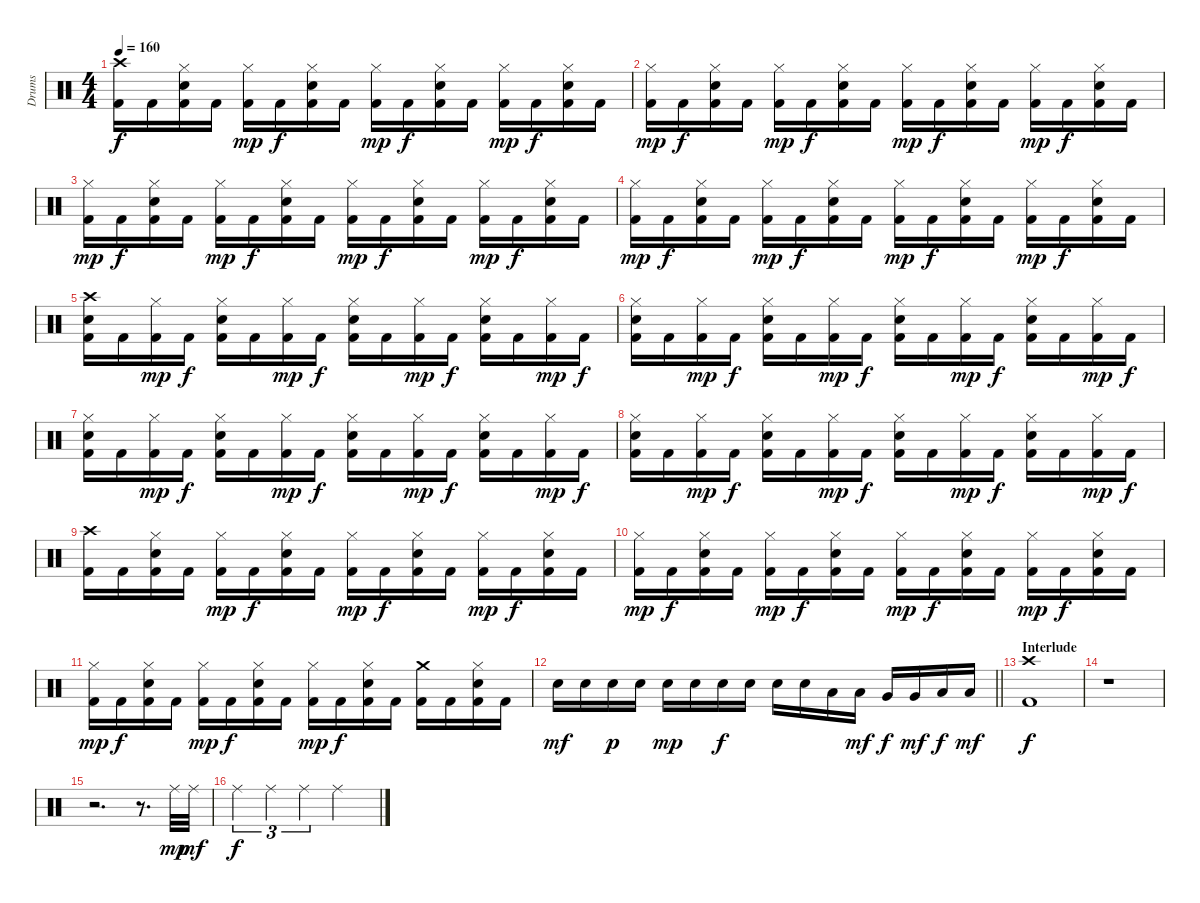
\track ("Drums" "Drums") {instrument percussion}
\staff {score}
\articulation defaults
\ts (4 4)
\tempo 160
\clef neutral
\ks c
("Kick (hit) 2" "Crash high (hit)").16{dy f} "Kick (hit) 2".16 ("Kick (hit) 2" "Hi-Hat (closed)" "Electric Snare (hit)").16 "Kick (hit) 2".16 ("Kick (hit) 2" "Hi-Hat (closed)").16{dy mp} "Kick (hit) 2".16{dy f} ("Kick (hit) 2" "Hi-Hat (closed)" "Electric Snare (hit)").16 "Kick (hit) 2".16 ("Kick (hit) 2" "Hi-Hat (closed)").16{dy mp} "Kick (hit) 2".16{dy f} ("Kick (hit) 2" "Hi-Hat (closed)" "Electric Snare (hit)").16 "Kick (hit) 2".16 ("Kick (hit) 2" "Hi-Hat (closed)").16{dy mp} "Kick (hit) 2".16{dy f} ("Kick (hit) 2" "Hi-Hat (closed)" "Electric Snare (hit)").16 "Kick (hit) 2".16 |
("Kick (hit) 2" "Hi-Hat (closed)").16{dy mp} "Kick (hit) 2".16{dy f} ("Kick (hit) 2" "Hi-Hat (closed)" "Electric Snare (hit)").16 "Kick (hit) 2".16 ("Kick (hit) 2" "Hi-Hat (closed)").16{dy mp} "Kick (hit) 2".16{dy f} ("Kick (hit) 2" "Hi-Hat (closed)" "Electric Snare (hit)").16 "Kick (hit) 2".16 ("Kick (hit) 2" "Hi-Hat (closed)").16{dy mp} "Kick (hit) 2".16{dy f} ("Kick (hit) 2" "Hi-Hat (closed)" "Electric Snare (hit)").16 "Kick (hit) 2".16 ("Kick (hit) 2" "Hi-Hat (closed)").16{dy mp} "Kick (hit) 2".16{dy f} ("Kick (hit) 2" "Hi-Hat (closed)" "Electric Snare (hit)").16 "Kick (hit) 2".16 |
("Kick (hit) 2" "Hi-Hat (closed)").16{dy mp} "Kick (hit) 2".16{dy f} ("Kick (hit) 2" "Hi-Hat (closed)" "Electric Snare (hit)").16 "Kick (hit) 2".16 ("Kick (hit) 2" "Hi-Hat (closed)").16{dy mp} "Kick (hit) 2".16{dy f} ("Kick (hit) 2" "Hi-Hat (closed)" "Electric Snare (hit)").16 "Kick (hit) 2".16 ("Kick (hit) 2" "Hi-Hat (closed)").16{dy mp} "Kick (hit) 2".16{dy f} ("Kick (hit) 2" "Hi-Hat (closed)" "Electric Snare (hit)").16 "Kick (hit) 2".16 ("Kick (hit) 2" "Hi-Hat (closed)").16{dy mp} "Kick (hit) 2".16{dy f} ("Kick (hit) 2" "Hi-Hat (closed)" "Electric Snare (hit)").16 "Kick (hit) 2".16 |
("Kick (hit) 2" "Hi-Hat (closed)").16{dy mp} "Kick (hit) 2".16{dy f} ("Kick (hit) 2" "Hi-Hat (closed)" "Electric Snare (hit)").16 "Kick (hit) 2".16 ("Kick (hit) 2" "Hi-Hat (closed)").16{dy mp} "Kick (hit) 2".16{dy f} ("Kick (hit) 2" "Hi-Hat (closed)" "Electric Snare (hit)").16 "Kick (hit) 2".16 ("Kick (hit) 2" "Hi-Hat (closed)").16{dy mp} "Kick (hit) 2".16{dy f} ("Kick (hit) 2" "Hi-Hat (closed)" "Electric Snare (hit)").16 "Kick (hit) 2".16 ("Kick (hit) 2" "Hi-Hat (closed)").16{dy mp} "Kick (hit) 2".16{dy f} ("Kick (hit) 2" "Hi-Hat (closed)" "Electric Snare (hit)").16 "Kick (hit) 2".16 |
("Kick (hit) 2" "Crash high (hit)" "Electric Snare (hit)").16 "Kick (hit) 2".16 ("Kick (hit) 2" "Hi-Hat (closed)").16{dy mp} "Kick (hit) 2".16{dy f} ("Kick (hit) 2" "Hi-Hat (closed)" "Electric Snare (hit)").16 "Kick (hit) 2".16 ("Kick (hit) 2" "Hi-Hat (closed)").16{dy mp} "Kick (hit) 2".16{dy f} ("Kick (hit) 2" "Hi-Hat (closed)" "Electric Snare (hit)").16 "Kick (hit) 2".16 ("Kick (hit) 2" "Hi-Hat (closed)").16{dy mp} "Kick (hit) 2".16{dy f} ("Kick (hit) 2" "Hi-Hat (closed)" "Electric Snare (hit)").16 "Kick (hit) 2".16 ("Kick (hit) 2" "Hi-Hat (closed)").16{dy mp} "Kick (hit) 2".16{dy f} |
("Kick (hit) 2" "Hi-Hat (closed)" "Electric Snare (hit)").16 "Kick (hit) 2".16 ("Kick (hit) 2" "Hi-Hat (closed)").16{dy mp} "Kick (hit) 2".16{dy f} ("Kick (hit) 2" "Hi-Hat (closed)" "Electric Snare (hit)").16 "Kick (hit) 2".16 ("Kick (hit) 2" "Hi-Hat (closed)").16{dy mp} "Kick (hit) 2".16{dy f} ("Kick (hit) 2" "Hi-Hat (closed)" "Electric Snare (hit)").16 "Kick (hit) 2".16 ("Kick (hit) 2" "Hi-Hat (closed)").16{dy mp} "Kick (hit) 2".16{dy f} ("Kick (hit) 2" "Hi-Hat (closed)" "Electric Snare (hit)").16 "Kick (hit) 2".16 ("Kick (hit) 2" "Hi-Hat (closed)").16{dy mp} "Kick (hit) 2".16{dy f} |
("Kick (hit) 2" "Hi-Hat (closed)" "Electric Snare (hit)").16 "Kick (hit) 2".16 ("Kick (hit) 2" "Hi-Hat (closed)").16{dy mp} "Kick (hit) 2".16{dy f} ("Kick (hit) 2" "Hi-Hat (closed)" "Electric Snare (hit)").16 "Kick (hit) 2".16 ("Kick (hit) 2" "Hi-Hat (closed)").16{dy mp} "Kick (hit) 2".16{dy f} ("Kick (hit) 2" "Hi-Hat (closed)" "Electric Snare (hit)").16 "Kick (hit) 2".16 ("Kick (hit) 2" "Hi-Hat (closed)").16{dy mp} "Kick (hit) 2".16{dy f} ("Kick (hit) 2" "Hi-Hat (closed)" "Electric Snare (hit)").16 "Kick (hit) 2".16 ("Kick (hit) 2" "Hi-Hat (closed)").16{dy mp} "Kick (hit) 2".16{dy f} |
("Kick (hit) 2" "Hi-Hat (closed)" "Electric Snare (hit)").16 "Kick (hit) 2".16 ("Kick (hit) 2" "Hi-Hat (closed)").16{dy mp} "Kick (hit) 2".16{dy f} ("Kick (hit) 2" "Hi-Hat (closed)" "Electric Snare (hit)").16 "Kick (hit) 2".16 ("Kick (hit) 2" "Hi-Hat (closed)").16{dy mp} "Kick (hit) 2".16{dy f} ("Kick (hit) 2" "Hi-Hat (closed)" "Electric Snare (hit)").16 "Kick (hit) 2".16 ("Kick (hit) 2" "Hi-Hat (closed)").16{dy mp} "Kick (hit) 2".16{dy f} ("Kick (hit) 2" "Hi-Hat (closed)" "Electric Snare (hit)").16 "Kick (hit) 2".16 ("Kick (hit) 2" "Hi-Hat (closed)").16{dy mp} "Kick (hit) 2".16{dy f} |
("Kick (hit) 2" "Crash high (hit)").16 "Kick (hit) 2".16 ("Kick (hit) 2" "Hi-Hat (closed)" "Electric Snare (hit)").16 "Kick (hit) 2".16 ("Kick (hit) 2" "Hi-Hat (closed)").16{dy mp} "Kick (hit) 2".16{dy f} ("Kick (hit) 2" "Hi-Hat (closed)" "Electric Snare (hit)").16 "Kick (hit) 2".16 ("Kick (hit) 2" "Hi-Hat (closed)").16{dy mp} "Kick (hit) 2".16{dy f} ("Kick (hit) 2" "Hi-Hat (closed)" "Electric Snare (hit)").16 "Kick (hit) 2".16 ("Kick (hit) 2" "Hi-Hat (closed)").16{dy mp} "Kick (hit) 2".16{dy f} ("Kick (hit) 2" "Hi-Hat (closed)" "Electric Snare (hit)").16 "Kick (hit) 2".16 |
("Kick (hit) 2" "Hi-Hat (closed)").16{dy mp} "Kick (hit) 2".16{dy f} ("Kick (hit) 2" "Hi-Hat (closed)" "Electric Snare (hit)").16 "Kick (hit) 2".16 ("Kick (hit) 2" "Hi-Hat (closed)").16{dy mp} "Kick (hit) 2".16{dy f} ("Kick (hit) 2" "Hi-Hat (closed)" "Electric Snare (hit)").16 "Kick (hit) 2".16 ("Kick (hit) 2" "Hi-Hat (closed)").16{dy mp} "Kick (hit) 2".16{dy f} ("Kick (hit) 2" "Hi-Hat (closed)" "Electric Snare (hit)").16 "Kick (hit) 2".16 ("Kick (hit) 2" "Hi-Hat (closed)").16{dy mp} "Kick (hit) 2".16{dy f} ("Kick (hit) 2" "Hi-Hat (closed)" "Electric Snare (hit)").16 "Kick (hit) 2".16 |
("Kick (hit) 2" "Hi-Hat (closed)").16{dy mp} "Kick (hit) 2".16{dy f} ("Kick (hit) 2" "Hi-Hat (closed)" "Electric Snare (hit)").16 "Kick (hit) 2".16 ("Kick (hit) 2" "Hi-Hat (closed)").16{dy mp} "Kick (hit) 2".16{dy f} ("Kick (hit) 2" "Hi-Hat (closed)" "Electric Snare (hit)").16 "Kick (hit) 2".16 ("Kick (hit) 2" "Hi-Hat (closed)").16{dy mp} "Kick (hit) 2".16{dy f} ("Kick (hit) 2" "Hi-Hat (closed)" "Electric Snare (hit)").16 "Kick (hit) 2".16 ("Kick (hit) 2" "Crash medium (hit)").16 "Kick (hit) 2".16 ("Kick (hit) 2" "Hi-Hat (closed)" "Electric Snare (hit)").16 "Kick (hit) 2".16 |
\barLineRight lightlight "Electric Snare (hit)".16{dy mf} "Electric Snare (hit)".16 "Electric Snare (hit)".16{dy p} "Electric Snare (hit)".16 "Electric Snare (hit)".16{dy mp} "Electric Snare (hit)".16 "Electric Snare (hit)".16{dy f} "Electric Snare (hit)".16 "Electric Snare (hit)".16 "Electric Snare (hit)".16 "Low Tom (hit)".16 "Low Tom (hit)".16{dy mf} "Very Low Tom (hit)".16{dy f} "Very Low Tom (hit)".16{dy mf} "Low Floor Tom (hit)".16{dy f} "Low Floor Tom (hit)".16{dy mf}
|
\section ("" "Interlude")
("Kick (hit) 2" "Crash high (hit)").1{dy f} |
r.1 |
r.2{d} r.8{d} "Ride (middle)".32{dy mp} "Ride (middle)".32{dy mf} |
"Ride (middle)".4{tu (3 2) dy f} "Ride (middle)".4{tu (3 2)} "Ride (middle)".4{tu (3 2)} "Ride (middle)".2
